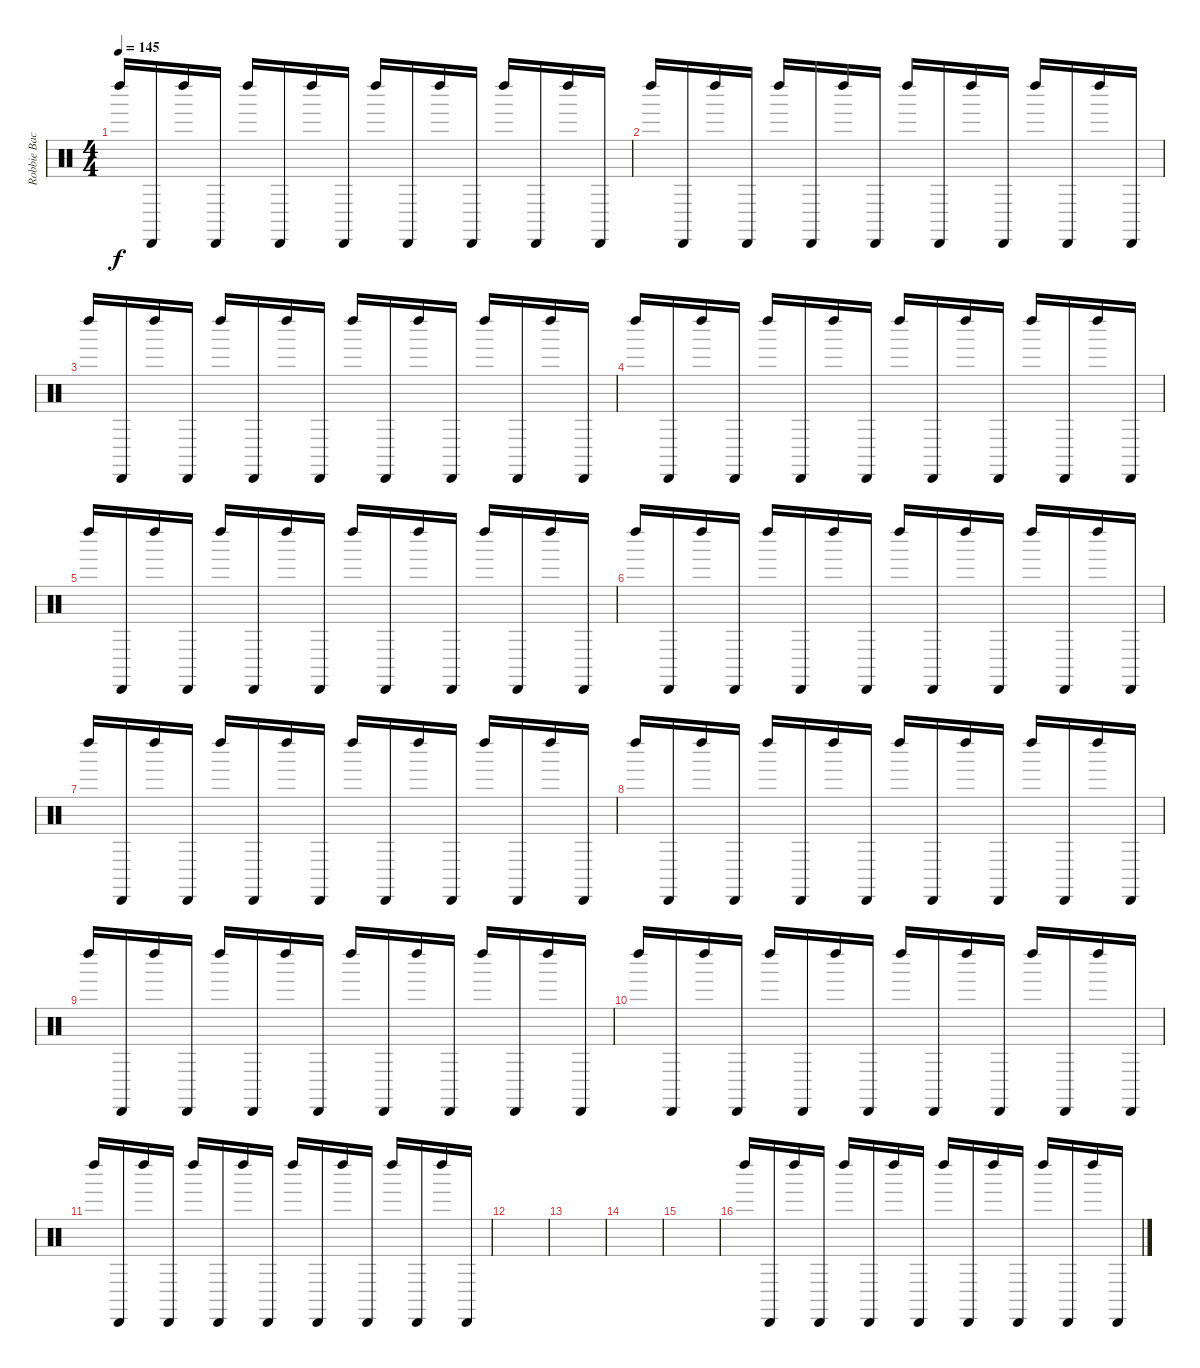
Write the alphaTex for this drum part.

\track ("Robbie Bachman 2" "Robbie Bac") {instrument percussion}
\staff {score}
\articulation defaults
\ts (4 4)
\tempo 145
\clef neutral
\ks c "Left Maraca (hit)".16{dy f} "Cabasa (hit)".16 "Left Maraca (hit)".16 "Cabasa (hit)".16 "Left Maraca (hit)".16 "Cabasa (hit)".16 "Left Maraca (hit)".16 "Cabasa (hit)".16 "Left Maraca (hit)".16 "Cabasa (hit)".16 "Left Maraca (hit)".16 "Cabasa (hit)".16 "Left Maraca (hit)".16 "Cabasa (hit)".16 "Left Maraca (hit)".16 "Cabasa (hit)".16
|
"Left Maraca (hit)".16 "Cabasa (hit)".16 "Left Maraca (hit)".16 "Cabasa (hit)".16 "Left Maraca (hit)".16 "Cabasa (hit)".16 "Left Maraca (hit)".16 "Cabasa (hit)".16 "Left Maraca (hit)".16 "Cabasa (hit)".16 "Left Maraca (hit)".16 "Cabasa (hit)".16 "Left Maraca (hit)".16 "Cabasa (hit)".16 "Left Maraca (hit)".16 "Cabasa (hit)".16 |
"Left Maraca (hit)".16 "Cabasa (hit)".16 "Left Maraca (hit)".16 "Cabasa (hit)".16 "Left Maraca (hit)".16 "Cabasa (hit)".16 "Left Maraca (hit)".16 "Cabasa (hit)".16 "Left Maraca (hit)".16 "Cabasa (hit)".16 "Left Maraca (hit)".16 "Cabasa (hit)".16 "Left Maraca (hit)".16 "Cabasa (hit)".16 "Left Maraca (hit)".16 "Cabasa (hit)".16 |
"Left Maraca (hit)".16 "Cabasa (hit)".16 "Left Maraca (hit)".16 "Cabasa (hit)".16 "Left Maraca (hit)".16 "Cabasa (hit)".16 "Left Maraca (hit)".16 "Cabasa (hit)".16 "Left Maraca (hit)".16 "Cabasa (hit)".16 "Left Maraca (hit)".16 "Cabasa (hit)".16 "Left Maraca (hit)".16 "Cabasa (hit)".16 "Left Maraca (hit)".16 "Cabasa (hit)".16 |
"Left Maraca (hit)".16 "Cabasa (hit)".16 "Left Maraca (hit)".16 "Cabasa (hit)".16 "Left Maraca (hit)".16 "Cabasa (hit)".16 "Left Maraca (hit)".16 "Cabasa (hit)".16 "Left Maraca (hit)".16 "Cabasa (hit)".16 "Left Maraca (hit)".16 "Cabasa (hit)".16 "Left Maraca (hit)".16 "Cabasa (hit)".16 "Left Maraca (hit)".16 "Cabasa (hit)".16 |
"Left Maraca (hit)".16 "Cabasa (hit)".16 "Left Maraca (hit)".16 "Cabasa (hit)".16 "Left Maraca (hit)".16 "Cabasa (hit)".16 "Left Maraca (hit)".16 "Cabasa (hit)".16 "Left Maraca (hit)".16 "Cabasa (hit)".16 "Left Maraca (hit)".16 "Cabasa (hit)".16 "Left Maraca (hit)".16 "Cabasa (hit)".16 "Left Maraca (hit)".16 "Cabasa (hit)".16 |
"Left Maraca (hit)".16 "Cabasa (hit)".16 "Left Maraca (hit)".16 "Cabasa (hit)".16 "Left Maraca (hit)".16 "Cabasa (hit)".16 "Left Maraca (hit)".16 "Cabasa (hit)".16 "Left Maraca (hit)".16 "Cabasa (hit)".16 "Left Maraca (hit)".16 "Cabasa (hit)".16 "Left Maraca (hit)".16 "Cabasa (hit)".16 "Left Maraca (hit)".16 "Cabasa (hit)".16 |
"Left Maraca (hit)".16 "Cabasa (hit)".16 "Left Maraca (hit)".16 "Cabasa (hit)".16 "Left Maraca (hit)".16 "Cabasa (hit)".16 "Left Maraca (hit)".16 "Cabasa (hit)".16 "Left Maraca (hit)".16 "Cabasa (hit)".16 "Left Maraca (hit)".16 "Cabasa (hit)".16 "Left Maraca (hit)".16 "Cabasa (hit)".16 "Left Maraca (hit)".16 "Cabasa (hit)".16 |
"Left Maraca (hit)".16 "Cabasa (hit)".16 "Left Maraca (hit)".16 "Cabasa (hit)".16 "Left Maraca (hit)".16 "Cabasa (hit)".16 "Left Maraca (hit)".16 "Cabasa (hit)".16 "Left Maraca (hit)".16 "Cabasa (hit)".16 "Left Maraca (hit)".16 "Cabasa (hit)".16 "Left Maraca (hit)".16 "Cabasa (hit)".16 "Left Maraca (hit)".16 "Cabasa (hit)".16 |
"Left Maraca (hit)".16 "Cabasa (hit)".16 "Left Maraca (hit)".16 "Cabasa (hit)".16 "Left Maraca (hit)".16 "Cabasa (hit)".16 "Left Maraca (hit)".16 "Cabasa (hit)".16 "Left Maraca (hit)".16 "Cabasa (hit)".16 "Left Maraca (hit)".16 "Cabasa (hit)".16 "Left Maraca (hit)".16 "Cabasa (hit)".16 "Left Maraca (hit)".16 "Cabasa (hit)".16 |
"Left Maraca (hit)".16 "Cabasa (hit)".16 "Left Maraca (hit)".16 "Cabasa (hit)".16 "Left Maraca (hit)".16 "Cabasa (hit)".16 "Left Maraca (hit)".16 "Cabasa (hit)".16 "Left Maraca (hit)".16 "Cabasa (hit)".16 "Left Maraca (hit)".16 "Cabasa (hit)".16 "Left Maraca (hit)".16 "Cabasa (hit)".16 "Left Maraca (hit)".16 "Cabasa (hit)".16 |
|
|
|
|
"Left Maraca (hit)".16 "Cabasa (hit)".16 "Left Maraca (hit)".16 "Cabasa (hit)".16 "Left Maraca (hit)".16 "Cabasa (hit)".16 "Left Maraca (hit)".16 "Cabasa (hit)".16 "Left Maraca (hit)".16 "Cabasa (hit)".16 "Left Maraca (hit)".16 "Cabasa (hit)".16 "Left Maraca (hit)".16 "Cabasa (hit)".16 "Left Maraca (hit)".16 "Cabasa (hit)".16
